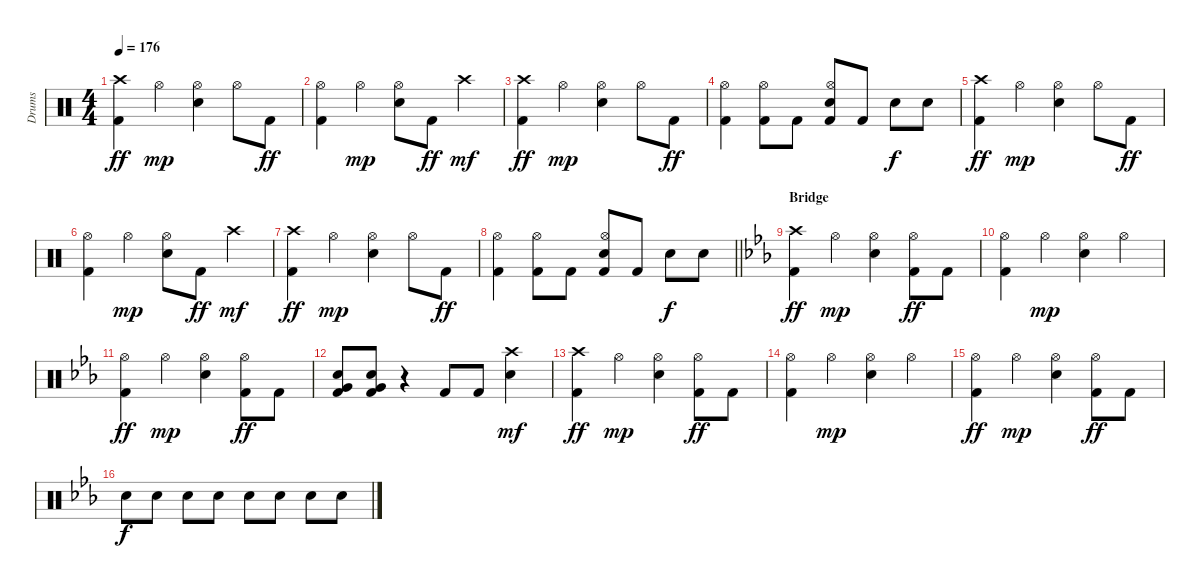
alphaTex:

\track ("Drums" "Drums") {instrument percussion}
\staff {score}
\articulation defaults
\ts (4 4)
\tempo 176
\clef neutral
\ks c
("Crash high (hit)" "Kick (hit) 2").4{dy ff} "Hi-Hat (open)".4{dy mp} ("Hi-Hat (open)" "Electric Snare (hit)").4 "Hi-Hat (open)".8 "Kick (hit) 2".8{dy ff} |
("Hi-Hat (open)" "Kick (hit) 2").4 "Hi-Hat (open)".4{dy mp} ("Hi-Hat (open)" "Electric Snare (hit)").8 "Kick (hit) 2".8{dy ff} "Crash high (hit)".4{dy mf} |
("Crash high (hit)" "Kick (hit) 2").4{dy ff} "Hi-Hat (open)".4{dy mp} ("Hi-Hat (open)" "Electric Snare (hit)").4 "Hi-Hat (open)".8 "Kick (hit) 2".8{dy ff} |
("Hi-Hat (open)" "Kick (hit) 2").4 ("Hi-Hat (open)" "Kick (hit) 2").8 "Kick (hit) 2".8 ("Hi-Hat (open)" "Electric Snare (hit)" "Kick (hit) 2").8 "Kick (hit) 2".8 "Electric Snare (hit)".8{dy f} "Electric Snare (hit)".8 |
("Crash high (hit)" "Kick (hit) 2").4{dy ff} "Hi-Hat (open)".4{dy mp} ("Hi-Hat (open)" "Electric Snare (hit)").4 "Hi-Hat (open)".8 "Kick (hit) 2".8{dy ff} |
("Hi-Hat (open)" "Kick (hit) 2").4 "Hi-Hat (open)".4{dy mp} ("Hi-Hat (open)" "Electric Snare (hit)").8 "Kick (hit) 2".8{dy ff} "Crash high (hit)".4{dy mf} |
("Crash high (hit)" "Kick (hit) 2").4{dy ff} "Hi-Hat (open)".4{dy mp} ("Hi-Hat (open)" "Electric Snare (hit)").4 "Hi-Hat (open)".8 "Kick (hit) 2".8{dy ff} |
\barLineRight lightlight
("Hi-Hat (open)" "Kick (hit) 2").4 ("Hi-Hat (open)" "Kick (hit) 2").8 "Kick (hit) 2".8 ("Hi-Hat (open)" "Electric Snare (hit)" "Kick (hit) 2").8 "Kick (hit) 2".8 "Electric Snare (hit)".8{dy f} "Electric Snare (hit)".8 |
\section ("" "Bridge")
\ks eb
("Crash high (hit)" "Kick (hit) 2").4{dy ff} "Hi-Hat (open)".4{dy mp} ("Hi-Hat (open)" "Electric Snare (hit)").4 ("Hi-Hat (open)" "Kick (hit) 2").8{dy ff} "Kick (hit) 2".8 |
("Hi-Hat (open)" "Kick (hit) 2").4 "Hi-Hat (open)".4{dy mp} ("Hi-Hat (open)" "Electric Snare (hit)").4 "Hi-Hat (open)".4 |
("Hi-Hat (open)" "Kick (hit) 2").4{dy ff} "Hi-Hat (open)".4{dy mp} ("Hi-Hat (open)" "Electric Snare (hit)").4 ("Hi-Hat (open)" "Kick (hit) 2").8{dy ff} "Kick (hit) 2".8 |
("Very Low Tom (hit)" "Electric Snare (hit)" "Kick (hit) 2").8 ("Very Low Tom (hit)" "Electric Snare (hit)" "Kick (hit) 2").8 r.4 "Kick (hit) 2".8 "Kick (hit) 2".8 ("Crash high (hit)" "Electric Snare (hit)").4{dy mf} |
("Crash high (hit)" "Kick (hit) 2").4{dy ff} "Hi-Hat (open)".4{dy mp} ("Hi-Hat (open)" "Electric Snare (hit)").4 ("Hi-Hat (open)" "Kick (hit) 2").8{dy ff} "Kick (hit) 2".8 |
("Hi-Hat (open)" "Kick (hit) 2").4 "Hi-Hat (open)".4{dy mp} ("Hi-Hat (open)" "Electric Snare (hit)").4 "Hi-Hat (open)".4 |
("Hi-Hat (open)" "Kick (hit) 2").4{dy ff} "Hi-Hat (open)".4{dy mp} ("Hi-Hat (open)" "Electric Snare (hit)").4 ("Hi-Hat (open)" "Kick (hit) 2").8{dy ff} "Kick (hit) 2".8 |
"Electric Snare (hit)".8{dy f} "Electric Snare (hit)".8 "Electric Snare (hit)".8 "Electric Snare (hit)".8 "Electric Snare (hit)".8 "Electric Snare (hit)".8 "Electric Snare (hit)".8 "Electric Snare (hit)".8
